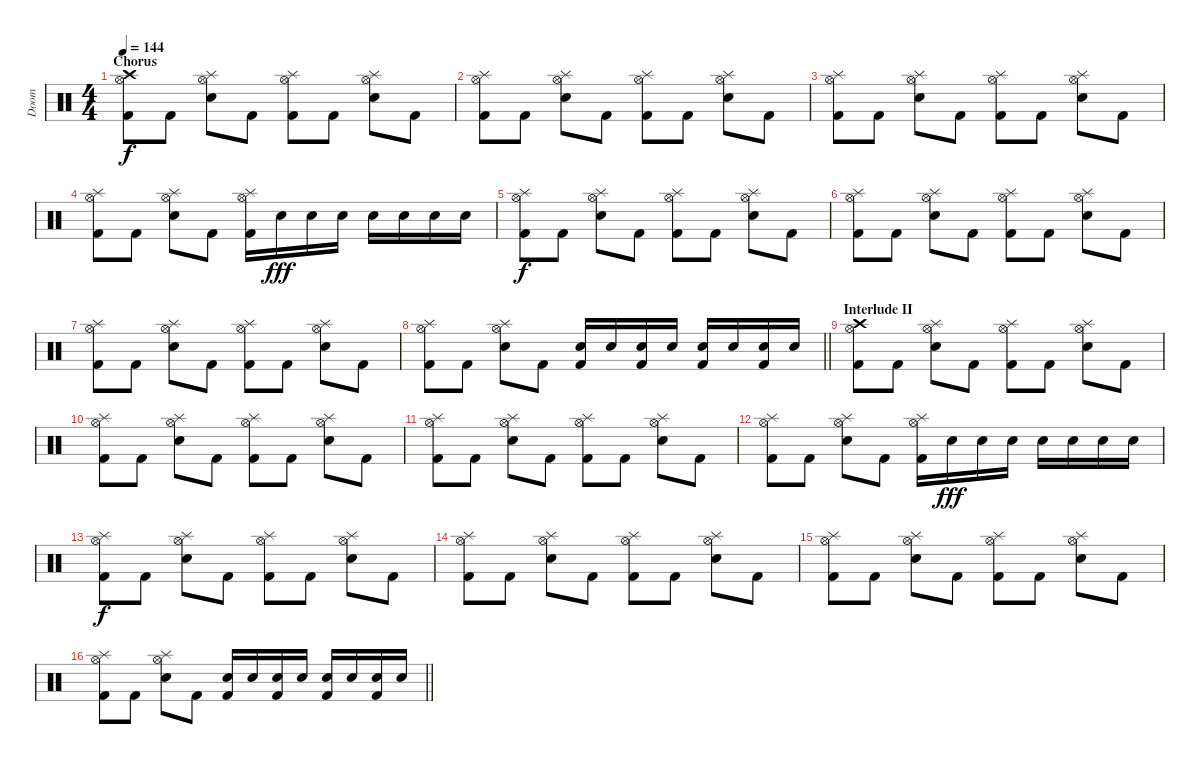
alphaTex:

\track ("Doom" "Doom") {instrument percussion}
\staff {score}
\articulation defaults
\ts (4 4)
\section ("" "Chorus")
\tempo 144
\clef neutral
\ks c
("Kick (hit) 2" "Hi-Hat (open)" "Crash high (hit)").8{dy f} "Kick (hit) 2".8 ("Snare (hit) 2" "Hi-Hat (open)" "Splash (hit)").8 "Kick (hit) 2".8 ("Kick (hit) 2" "Hi-Hat (open)" "Splash (hit)").8 "Kick (hit) 2".8 ("Snare (hit) 2" "Hi-Hat (open)" "Splash (hit)").8 "Kick (hit) 2".8 |
("Kick (hit) 2" "Hi-Hat (open)" "Splash (hit)").8 "Kick (hit) 2".8 ("Snare (hit) 2" "Hi-Hat (open)" "Splash (hit)").8 "Kick (hit) 2".8 ("Kick (hit) 2" "Hi-Hat (open)" "Splash (hit)").8 "Kick (hit) 2".8 ("Snare (hit) 2" "Hi-Hat (open)" "Splash (hit)").8 "Kick (hit) 2".8 |
("Kick (hit) 2" "Hi-Hat (open)" "Splash (hit)").8 "Kick (hit) 2".8 ("Snare (hit) 2" "Hi-Hat (open)" "Splash (hit)").8 "Kick (hit) 2".8 ("Kick (hit) 2" "Hi-Hat (open)" "Splash (hit)").8 "Kick (hit) 2".8 ("Snare (hit) 2" "Hi-Hat (open)" "Splash (hit)").8 "Kick (hit) 2".8 |
("Kick (hit) 2" "Hi-Hat (open)" "Splash (hit)").8 "Kick (hit) 2".8 ("Snare (hit) 2" "Hi-Hat (open)" "Splash (hit)").8 "Kick (hit) 2".8 ("Kick (hit) 2" "Hi-Hat (open)" "Splash (hit)").16 "Snare (hit) 2".16{dy fff} "Snare (hit) 2".16 "Snare (hit) 2".16 "Snare (hit) 2".16 "Snare (hit) 2".16 "Snare (hit) 2".16 "Snare (hit) 2".16 |
("Kick (hit) 2" "Hi-Hat (open)" "Splash (hit)").8{dy f} "Kick (hit) 2".8 ("Snare (hit) 2" "Hi-Hat (open)" "Splash (hit)").8 "Kick (hit) 2".8 ("Kick (hit) 2" "Hi-Hat (open)" "Splash (hit)").8 "Kick (hit) 2".8 ("Snare (hit) 2" "Hi-Hat (open)" "Splash (hit)").8 "Kick (hit) 2".8 |
("Kick (hit) 2" "Hi-Hat (open)" "Splash (hit)").8 "Kick (hit) 2".8 ("Snare (hit) 2" "Hi-Hat (open)" "Splash (hit)").8 "Kick (hit) 2".8 ("Kick (hit) 2" "Hi-Hat (open)" "Splash (hit)").8 "Kick (hit) 2".8 ("Snare (hit) 2" "Hi-Hat (open)" "Splash (hit)").8 "Kick (hit) 2".8 |
("Kick (hit) 2" "Hi-Hat (open)" "Splash (hit)").8 "Kick (hit) 2".8 ("Snare (hit) 2" "Hi-Hat (open)" "Splash (hit)").8 "Kick (hit) 2".8 ("Kick (hit) 2" "Hi-Hat (open)" "Splash (hit)").8 "Kick (hit) 2".8 ("Snare (hit) 2" "Hi-Hat (open)" "Splash (hit)").8 "Kick (hit) 2".8 |
\barLineRight lightlight
("Kick (hit) 2" "Hi-Hat (open)" "Splash (hit)").8 "Kick (hit) 2".8 ("Snare (hit) 2" "Hi-Hat (open)" "Splash (hit)").8 "Kick (hit) 2".8 ("Snare (hit) 2" "Kick (hit) 2").16 "Snare (hit) 2".16 ("Kick (hit) 2" "Snare (hit) 2").16 "Snare (hit) 2".16 ("Snare (hit) 2" "Kick (hit) 2").16 "Snare (hit) 2".16 ("Snare (hit) 2" "Kick (hit) 2").16 "Snare (hit) 2".16 |
\section ("" "Interlude II")
("Kick (hit) 2" "Hi-Hat (open)" "Crash high (hit)").8 "Kick (hit) 2".8 ("Snare (hit) 2" "Hi-Hat (open)" "Splash (hit)").8 "Kick (hit) 2".8 ("Kick (hit) 2" "Hi-Hat (open)" "Splash (hit)").8 "Kick (hit) 2".8 ("Snare (hit) 2" "Hi-Hat (open)" "Splash (hit)").8 "Kick (hit) 2".8 |
("Kick (hit) 2" "Hi-Hat (open)" "Splash (hit)").8 "Kick (hit) 2".8 ("Snare (hit) 2" "Hi-Hat (open)" "Splash (hit)").8 "Kick (hit) 2".8 ("Kick (hit) 2" "Hi-Hat (open)" "Splash (hit)").8 "Kick (hit) 2".8 ("Snare (hit) 2" "Hi-Hat (open)" "Splash (hit)").8 "Kick (hit) 2".8 |
("Kick (hit) 2" "Hi-Hat (open)" "Splash (hit)").8 "Kick (hit) 2".8 ("Snare (hit) 2" "Hi-Hat (open)" "Splash (hit)").8 "Kick (hit) 2".8 ("Kick (hit) 2" "Hi-Hat (open)" "Splash (hit)").8 "Kick (hit) 2".8 ("Snare (hit) 2" "Hi-Hat (open)" "Splash (hit)").8 "Kick (hit) 2".8 |
("Kick (hit) 2" "Hi-Hat (open)" "Splash (hit)").8 "Kick (hit) 2".8 ("Snare (hit) 2" "Hi-Hat (open)" "Splash (hit)").8 "Kick (hit) 2".8 ("Kick (hit) 2" "Hi-Hat (open)" "Splash (hit)").16 "Snare (hit) 2".16{dy fff} "Snare (hit) 2".16 "Snare (hit) 2".16 "Snare (hit) 2".16 "Snare (hit) 2".16 "Snare (hit) 2".16 "Snare (hit) 2".16 |
("Kick (hit) 2" "Hi-Hat (open)" "Splash (hit)").8{dy f} "Kick (hit) 2".8 ("Snare (hit) 2" "Hi-Hat (open)" "Splash (hit)").8 "Kick (hit) 2".8 ("Kick (hit) 2" "Hi-Hat (open)" "Splash (hit)").8 "Kick (hit) 2".8 ("Snare (hit) 2" "Hi-Hat (open)" "Splash (hit)").8 "Kick (hit) 2".8 |
("Kick (hit) 2" "Hi-Hat (open)" "Splash (hit)").8 "Kick (hit) 2".8 ("Snare (hit) 2" "Hi-Hat (open)" "Splash (hit)").8 "Kick (hit) 2".8 ("Kick (hit) 2" "Hi-Hat (open)" "Splash (hit)").8 "Kick (hit) 2".8 ("Snare (hit) 2" "Hi-Hat (open)" "Splash (hit)").8 "Kick (hit) 2".8 |
("Kick (hit) 2" "Hi-Hat (open)" "Splash (hit)").8 "Kick (hit) 2".8 ("Snare (hit) 2" "Hi-Hat (open)" "Splash (hit)").8 "Kick (hit) 2".8 ("Kick (hit) 2" "Hi-Hat (open)" "Splash (hit)").8 "Kick (hit) 2".8 ("Snare (hit) 2" "Hi-Hat (open)" "Splash (hit)").8 "Kick (hit) 2".8 |
\barLineRight lightlight
("Kick (hit) 2" "Hi-Hat (open)" "Splash (hit)").8 "Kick (hit) 2".8 ("Snare (hit) 2" "Hi-Hat (open)" "Splash (hit)").8 "Kick (hit) 2".8 ("Snare (hit) 2" "Kick (hit) 2").16 "Snare (hit) 2".16 ("Kick (hit) 2" "Snare (hit) 2").16 "Snare (hit) 2".16 ("Snare (hit) 2" "Kick (hit) 2").16 "Snare (hit) 2".16 ("Snare (hit) 2" "Kick (hit) 2").16 "Snare (hit) 2".16
